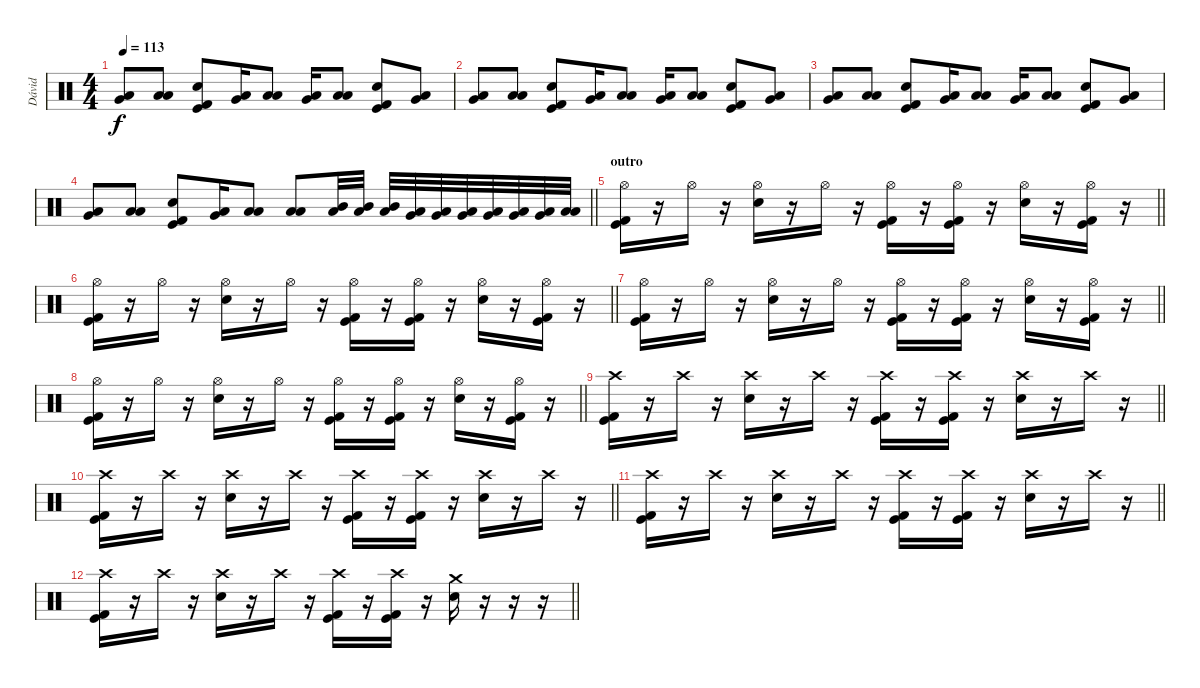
\track ("Dávid" "Dávid") {instrument percussion}
\staff {score}
\articulation defaults
\ts (4 4)
\tempo 113
\clef neutral
\ks c
("Low Tom (hit)" "Very Low Tom (hit)").8{dy f} ("Low Tom (hit)" "Low Floor Tom (hit)").8 ("Snare (hit) 2" "Kick (hit) 2" "Kick (hit)").8 ("Low Tom (hit)" "Very Low Tom (hit)").16 ("Low Tom (hit)" "Low Floor Tom (hit)").8 ("Low Tom (hit)" "Very Low Tom (hit)").16 ("Low Floor Tom (hit)" "Low Tom (hit)").8 ("Snare (hit) 2" "Kick (hit) 2" "Kick (hit)").8 ("Low Tom (hit)" "Very Low Tom (hit)").8 |
("Low Tom (hit)" "Very Low Tom (hit)").8 ("Low Tom (hit)" "Low Floor Tom (hit)").8 ("Snare (hit) 2" "Kick (hit) 2" "Kick (hit)").8 ("Low Tom (hit)" "Very Low Tom (hit)").16 ("Low Tom (hit)" "Low Floor Tom (hit)").8 ("Low Tom (hit)" "Very Low Tom (hit)").16 ("Low Floor Tom (hit)" "Low Tom (hit)").8 ("Snare (hit) 2" "Kick (hit) 2" "Kick (hit)").8 ("Low Tom (hit)" "Very Low Tom (hit)").8 |
("Low Tom (hit)" "Very Low Tom (hit)").8 ("Low Tom (hit)" "Low Floor Tom (hit)").8 ("Snare (hit) 2" "Kick (hit) 2" "Kick (hit)").8 ("Low Tom (hit)" "Very Low Tom (hit)").16 ("Low Tom (hit)" "Low Floor Tom (hit)").8 ("Low Tom (hit)" "Very Low Tom (hit)").16 ("Low Floor Tom (hit)" "Low Tom (hit)").8 ("Snare (hit) 2" "Kick (hit) 2" "Kick (hit)").8 ("Low Tom (hit)" "Very Low Tom (hit)").8 |
\barLineRight lightlight
("Low Tom (hit)" "Very Low Tom (hit)").8 ("Low Tom (hit)" "Low Floor Tom (hit)").8 ("Snare (hit) 2" "Kick (hit) 2" "Kick (hit)").8 ("Low Tom (hit)" "Very Low Tom (hit)").16 ("Low Tom (hit)" "Low Floor Tom (hit)").8 ("Low Tom (hit)" "Low Floor Tom (hit)").8 ("Mid Tom (hit)" "Low Tom (hit)").32 ("Mid Tom (hit)" "Low Tom (hit)").32 ("Mid Tom (hit)" "Low Tom (hit)").32 ("Low Tom (hit)" "Very Low Tom (hit)").32 ("Low Tom (hit)" "Very Low Tom (hit)").32 ("Low Tom (hit)" "Very Low Tom (hit)").32 ("Very Low Tom (hit)" "Low Floor Tom (hit)").32 ("Very Low Tom (hit)" "Low Floor Tom (hit)").32 ("Very Low Tom (hit)" "Low Floor Tom (hit)").32 ("Low Floor Tom (hit)" "Low Floor Tom (hit)").32 |
\section ("" "outro")
\barLineRight lightlight
("Hi-Hat (open)" "Kick (hit) 2" "Kick (hit)").16 r.16 "Hi-Hat (open)".16 r.16 ("Hi-Hat (open)" "Snare (hit) 2").16 r.16 "Hi-Hat (open)".16 r.16 ("Hi-Hat (open)" "Kick (hit) 2" "Kick (hit)").16 r.16 ("Hi-Hat (open)" "Kick (hit) 2" "Kick (hit)").16 r.16 ("Hi-Hat (open)" "Snare (hit) 2").16 r.16 ("Hi-Hat (open)" "Kick (hit) 2" "Kick (hit)").16 r.16 |
\barLineRight lightlight
("Hi-Hat (open)" "Kick (hit) 2" "Kick (hit)").16 r.16 "Hi-Hat (open)".16 r.16 ("Hi-Hat (open)" "Snare (hit) 2").16 r.16 "Hi-Hat (open)".16 r.16 ("Hi-Hat (open)" "Kick (hit) 2" "Kick (hit)").16 r.16 ("Hi-Hat (open)" "Kick (hit) 2" "Kick (hit)").16 r.16 ("Hi-Hat (open)" "Snare (hit) 2").16 r.16 ("Hi-Hat (open)" "Kick (hit) 2" "Kick (hit)").16 r.16 |
\barLineRight lightlight
("Hi-Hat (open)" "Kick (hit) 2" "Kick (hit)").16 r.16 "Hi-Hat (open)".16 r.16 ("Hi-Hat (open)" "Snare (hit) 2").16 r.16 "Hi-Hat (open)".16 r.16 ("Hi-Hat (open)" "Kick (hit) 2" "Kick (hit)").16 r.16 ("Hi-Hat (open)" "Kick (hit) 2" "Kick (hit)").16 r.16 ("Hi-Hat (open)" "Snare (hit) 2").16 r.16 ("Hi-Hat (open)" "Kick (hit) 2" "Kick (hit)").16 r.16 |
\barLineRight lightlight
("Hi-Hat (open)" "Kick (hit) 2" "Kick (hit)").16 r.16 "Hi-Hat (open)".16 r.16 ("Hi-Hat (open)" "Snare (hit) 2").16 r.16 "Hi-Hat (open)".16 r.16 ("Hi-Hat (open)" "Kick (hit) 2" "Kick (hit)").16 r.16 ("Hi-Hat (open)" "Kick (hit) 2" "Kick (hit)").16 r.16 ("Hi-Hat (open)" "Snare (hit) 2").16 r.16 ("Hi-Hat (open)" "Kick (hit) 2" "Kick (hit)").16 r.16 |
\barLineRight lightlight
("Crash high (hit)" "Kick (hit) 2" "Kick (hit)").16 r.16 "Crash high (hit)".16 r.16 ("Crash high (hit)" "Snare (hit) 2").16 r.16 "Crash high (hit)".16 r.16 ("Crash high (hit)" "Kick (hit) 2" "Kick (hit)").16 r.16 ("Crash high (hit)" "Kick (hit) 2" "Kick (hit)").16 r.16 ("Crash high (hit)" "Snare (hit) 2").16 r.16 "Crash high (hit)".16 r.16 |
\barLineRight lightlight
("Crash high (hit)" "Kick (hit) 2" "Kick (hit)").16 r.16 "Crash high (hit)".16 r.16 ("Crash high (hit)" "Snare (hit) 2").16 r.16 "Crash high (hit)".16 r.16 ("Crash high (hit)" "Kick (hit) 2" "Kick (hit)").16 r.16 ("Crash high (hit)" "Kick (hit) 2" "Kick (hit)").16 r.16 ("Crash high (hit)" "Snare (hit) 2").16 r.16 "Crash high (hit)".16 r.16 |
\barLineRight lightlight
("Crash high (hit)" "Kick (hit) 2" "Kick (hit)").16 r.16 "Crash high (hit)".16 r.16 ("Crash high (hit)" "Snare (hit) 2").16 r.16 "Crash high (hit)".16 r.16 ("Crash high (hit)" "Kick (hit) 2" "Kick (hit)").16 r.16 ("Crash high (hit)" "Kick (hit) 2" "Kick (hit)").16 r.16 ("Crash high (hit)" "Snare (hit) 2").16 r.16 "Crash high (hit)".16 r.16 |
\barLineRight lightlight
("Crash high (hit)" "Kick (hit) 2" "Kick (hit)").16 r.16 "Crash high (hit)".16 r.16 ("Crash high (hit)" "Snare (hit) 2").16 r.16 "Crash high (hit)".16 r.16 ("Crash high (hit)" "Kick (hit) 2" "Kick (hit)").16 r.16 ("Crash high (hit)" "Kick (hit) 2" "Kick (hit)").16 r.16 ("Crash medium (hit)" "Snare (hit) 2").16 r.16 r.16 r.16
